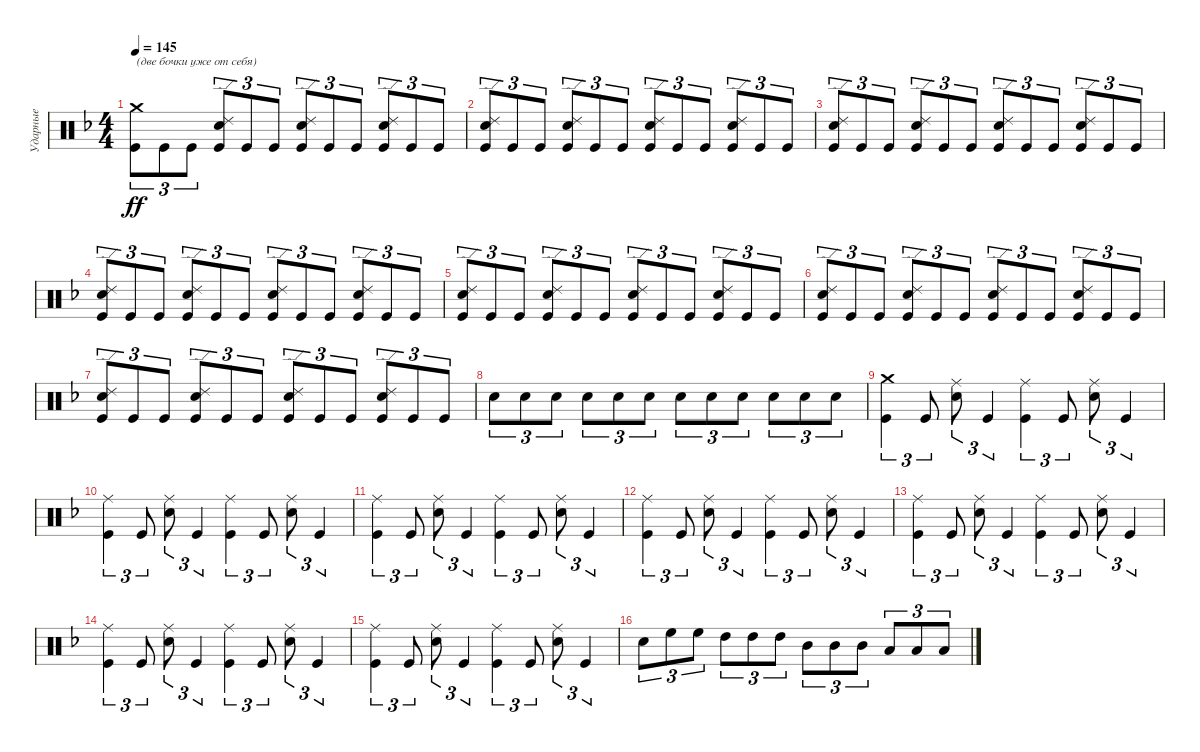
\track ("Ударные" "Ударные") {instrument percussion}
\staff {score}
\articulation defaults
\ts (4 4)
\tempo 145
\clef neutral
\ks dminor
("Crash medium (hit)" "Kick (hit)").8{tu (3 2) txt "(две бочки уже от себя)" dy ff} "Kick (hit)".8{tu (3 2)} "Kick (hit)".8{tu (3 2)} ("Ride (edge) 2" "Kick (hit)" "Electric Snare (hit)").8{tu (3 2)} "Kick (hit)".8{tu (3 2)} "Kick (hit)".8{tu (3 2)} ("Ride (edge) 2" "Kick (hit)" "Electric Snare (hit)").8{tu (3 2)} "Kick (hit)".8{tu (3 2)} "Kick (hit)".8{tu (3 2)} ("Ride (edge) 2" "Kick (hit)" "Electric Snare (hit)").8{tu (3 2)} "Kick (hit)".8{tu (3 2)} "Kick (hit)".8{tu (3 2)} |
("Ride (edge) 2" "Kick (hit)" "Electric Snare (hit)").8{tu (3 2)} "Kick (hit)".8{tu (3 2)} "Kick (hit)".8{tu (3 2)} ("Ride (edge) 2" "Kick (hit)" "Electric Snare (hit)").8{tu (3 2)} "Kick (hit)".8{tu (3 2)} "Kick (hit)".8{tu (3 2)} ("Ride (edge) 2" "Kick (hit)" "Electric Snare (hit)").8{tu (3 2)} "Kick (hit)".8{tu (3 2)} "Kick (hit)".8{tu (3 2)} ("Ride (edge) 2" "Kick (hit)" "Electric Snare (hit)").8{tu (3 2)} "Kick (hit)".8{tu (3 2)} "Kick (hit)".8{tu (3 2)} |
("Ride (edge) 2" "Kick (hit)" "Electric Snare (hit)").8{tu (3 2)} "Kick (hit)".8{tu (3 2)} "Kick (hit)".8{tu (3 2)} ("Ride (edge) 2" "Kick (hit)" "Electric Snare (hit)").8{tu (3 2)} "Kick (hit)".8{tu (3 2)} "Kick (hit)".8{tu (3 2)} ("Ride (edge) 2" "Kick (hit)" "Electric Snare (hit)").8{tu (3 2)} "Kick (hit)".8{tu (3 2)} "Kick (hit)".8{tu (3 2)} ("Ride (edge) 2" "Kick (hit)" "Electric Snare (hit)").8{tu (3 2)} "Kick (hit)".8{tu (3 2)} "Kick (hit)".8{tu (3 2)} |
("Ride (edge) 2" "Kick (hit)" "Electric Snare (hit)").8{tu (3 2)} "Kick (hit)".8{tu (3 2)} "Kick (hit)".8{tu (3 2)} ("Ride (edge) 2" "Kick (hit)" "Electric Snare (hit)").8{tu (3 2)} "Kick (hit)".8{tu (3 2)} "Kick (hit)".8{tu (3 2)} ("Ride (edge) 2" "Kick (hit)" "Electric Snare (hit)").8{tu (3 2)} "Kick (hit)".8{tu (3 2)} "Kick (hit)".8{tu (3 2)} ("Ride (edge) 2" "Kick (hit)" "Electric Snare (hit)").8{tu (3 2)} "Kick (hit)".8{tu (3 2)} "Kick (hit)".8{tu (3 2)} |
("Ride (edge) 2" "Kick (hit)" "Electric Snare (hit)").8{tu (3 2)} "Kick (hit)".8{tu (3 2)} "Kick (hit)".8{tu (3 2)} ("Ride (edge) 2" "Kick (hit)" "Electric Snare (hit)").8{tu (3 2)} "Kick (hit)".8{tu (3 2)} "Kick (hit)".8{tu (3 2)} ("Ride (edge) 2" "Kick (hit)" "Electric Snare (hit)").8{tu (3 2)} "Kick (hit)".8{tu (3 2)} "Kick (hit)".8{tu (3 2)} ("Ride (edge) 2" "Kick (hit)" "Electric Snare (hit)").8{tu (3 2)} "Kick (hit)".8{tu (3 2)} "Kick (hit)".8{tu (3 2)} |
("Ride (edge) 2" "Kick (hit)" "Electric Snare (hit)").8{tu (3 2)} "Kick (hit)".8{tu (3 2)} "Kick (hit)".8{tu (3 2)} ("Ride (edge) 2" "Kick (hit)" "Electric Snare (hit)").8{tu (3 2)} "Kick (hit)".8{tu (3 2)} "Kick (hit)".8{tu (3 2)} ("Ride (edge) 2" "Kick (hit)" "Electric Snare (hit)").8{tu (3 2)} "Kick (hit)".8{tu (3 2)} "Kick (hit)".8{tu (3 2)} ("Ride (edge) 2" "Kick (hit)" "Electric Snare (hit)").8{tu (3 2)} "Kick (hit)".8{tu (3 2)} "Kick (hit)".8{tu (3 2)} |
("Ride (edge) 2" "Kick (hit)" "Electric Snare (hit)").8{tu (3 2)} "Kick (hit)".8{tu (3 2)} "Kick (hit)".8{tu (3 2)} ("Ride (edge) 2" "Kick (hit)" "Electric Snare (hit)").8{tu (3 2)} "Kick (hit)".8{tu (3 2)} "Kick (hit)".8{tu (3 2)} ("Ride (edge) 2" "Kick (hit)" "Electric Snare (hit)").8{tu (3 2)} "Kick (hit)".8{tu (3 2)} "Kick (hit)".8{tu (3 2)} ("Ride (edge) 2" "Kick (hit)" "Electric Snare (hit)").8{tu (3 2)} "Kick (hit)".8{tu (3 2)} "Kick (hit)".8{tu (3 2)} |
"Electric Snare (hit)".8{tu (3 2)} "Electric Snare (hit)".8{tu (3 2)} "Electric Snare (hit)".8{tu (3 2)} "Electric Snare (hit)".8{tu (3 2)} "Electric Snare (hit)".8{tu (3 2)} "Electric Snare (hit)".8{tu (3 2)} "Electric Snare (hit)".8{tu (3 2)} "Electric Snare (hit)".8{tu (3 2)} "Electric Snare (hit)".8{tu (3 2)} "Electric Snare (hit)".8{tu (3 2)} "Electric Snare (hit)".8{tu (3 2)} "Electric Snare (hit)".8{tu (3 2)} |
("Crash medium (hit)" "Kick (hit)").4{tu (3 2)} "Kick (hit)".8{tu (3 2)} ("Ride (middle)" "Electric Snare (hit)").8{tu (3 2)} "Kick (hit)".4{tu (3 2)} ("Ride (middle)" "Kick (hit)").4{tu (3 2)} "Kick (hit)".8{tu (3 2)} ("Ride (middle)" "Electric Snare (hit)").8{tu (3 2)} "Kick (hit)".4{tu (3 2)} |
("Ride (middle)" "Kick (hit)").4{tu (3 2)} "Kick (hit)".8{tu (3 2)} ("Ride (middle)" "Electric Snare (hit)").8{tu (3 2)} "Kick (hit)".4{tu (3 2)} ("Ride (middle)" "Kick (hit)").4{tu (3 2)} "Kick (hit)".8{tu (3 2)} ("Ride (middle)" "Electric Snare (hit)").8{tu (3 2)} "Kick (hit)".4{tu (3 2)} |
("Ride (middle)" "Kick (hit)").4{tu (3 2)} "Kick (hit)".8{tu (3 2)} ("Ride (middle)" "Electric Snare (hit)").8{tu (3 2)} "Kick (hit)".4{tu (3 2)} ("Ride (middle)" "Kick (hit)").4{tu (3 2)} "Kick (hit)".8{tu (3 2)} ("Ride (middle)" "Electric Snare (hit)").8{tu (3 2)} "Kick (hit)".4{tu (3 2)} |
("Ride (middle)" "Kick (hit)").4{tu (3 2)} "Kick (hit)".8{tu (3 2)} ("Ride (middle)" "Electric Snare (hit)").8{tu (3 2)} "Kick (hit)".4{tu (3 2)} ("Ride (middle)" "Kick (hit)").4{tu (3 2)} "Kick (hit)".8{tu (3 2)} ("Ride (middle)" "Electric Snare (hit)").8{tu (3 2)} "Kick (hit)".4{tu (3 2)} |
("Ride (middle)" "Kick (hit)").4{tu (3 2)} "Kick (hit)".8{tu (3 2)} ("Ride (middle)" "Electric Snare (hit)").8{tu (3 2)} "Kick (hit)".4{tu (3 2)} ("Ride (middle)" "Kick (hit)").4{tu (3 2)} "Kick (hit)".8{tu (3 2)} ("Ride (middle)" "Electric Snare (hit)").8{tu (3 2)} "Kick (hit)".4{tu (3 2)} |
("Ride (middle)" "Kick (hit)").4{tu (3 2)} "Kick (hit)".8{tu (3 2)} ("Ride (middle)" "Electric Snare (hit)").8{tu (3 2)} "Kick (hit)".4{tu (3 2)} ("Ride (middle)" "Kick (hit)").4{tu (3 2)} "Kick (hit)".8{tu (3 2)} ("Ride (middle)" "Electric Snare (hit)").8{tu (3 2)} "Kick (hit)".4{tu (3 2)} |
("Ride (middle)" "Kick (hit)").4{tu (3 2)} "Kick (hit)".8{tu (3 2)} ("Ride (middle)" "Electric Snare (hit)").8{tu (3 2)} "Kick (hit)".4{tu (3 2)} ("Ride (middle)" "Kick (hit)").4{tu (3 2)} "Kick (hit)".8{tu (3 2)} ("Ride (middle)" "Electric Snare (hit)").8{tu (3 2)} "Kick (hit)".4{tu (3 2)} |
"Electric Snare (hit)".8{tu (3 2)} "High Floor Tom (hit)".8{tu (3 2)} "High Floor Tom (hit)".8{tu (3 2)} "High Tom (hit)".8{tu (3 2)} "High Tom (hit)".8{tu (3 2)} "High Tom (hit)".8{tu (3 2)} "Mid Tom (hit)".8{tu (3 2)} "Mid Tom (hit)".8{tu (3 2)} "Mid Tom (hit)".8{tu (3 2)} "Low Tom (hit)".8{tu (3 2)} "Low Tom (hit)".8{tu (3 2)} "Low Tom (hit)".8{tu (3 2)}
